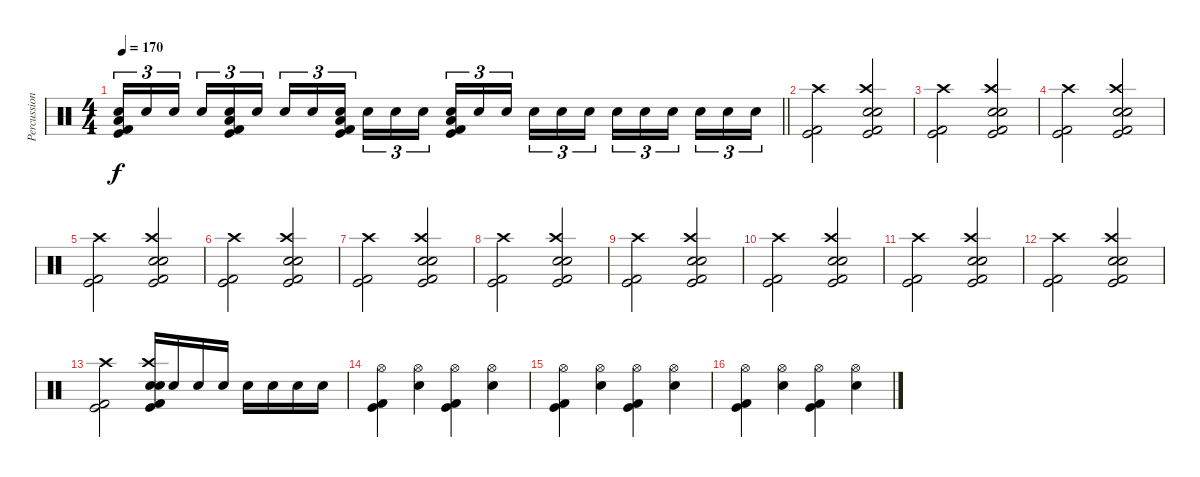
\track ("Percussion" "Percussion") {instrument percussion}
\staff {score}
\articulation defaults
\ts (4 4)
\tempo 170
\clef neutral
\barLineRight lightlight
\ks c
("Low Floor Tom (hit)" "Snare (hit) 2" "Kick (hit) 2" "Kick (hit)").16{tu (3 2) dy f} "Snare (hit) 2".16{tu (3 2)} "Snare (hit) 2".16{tu (3 2) beam splitsecondary} "Snare (hit) 2".16{tu (3 2)} ("Low Floor Tom (hit)" "Snare (hit) 2" "Kick (hit) 2" "Kick (hit)").16{tu (3 2)} "Snare (hit) 2".16{tu (3 2)} "Snare (hit) 2".16{tu (3 2)} "Snare (hit) 2".16{tu (3 2)} ("Low Floor Tom (hit)" "Snare (hit) 2" "Kick (hit) 2" "Kick (hit)").16{tu (3 2) beam splitsecondary} "Snare (hit) 2".16{tu (3 2)} "Snare (hit) 2".16{tu (3 2)} "Snare (hit) 2".16{tu (3 2)} ("Low Floor Tom (hit)" "Snare (hit) 2" "Kick (hit) 2" "Kick (hit)").16{tu (3 2)} "Snare (hit) 2".16{tu (3 2)} "Snare (hit) 2".16{tu (3 2) beam splitsecondary} "Snare (hit) 2".16{tu (3 2)} "Snare (hit) 2".16{tu (3 2)} "Snare (hit) 2".16{tu (3 2)} "Snare (hit) 2".16{tu (3 2)} "Snare (hit) 2".16{tu (3 2)} "Snare (hit) 2".16{tu (3 2) beam splitsecondary} "Snare (hit) 2".16{tu (3 2)} "Snare (hit) 2".16{tu (3 2)} "Snare (hit) 2".16{tu (3 2)} |
("Crash high (hit)" "Kick (hit) 2" "Kick (hit)").2 ("Crash high (hit)" "Kick (hit) 2" "Kick (hit)" "Electric Snare (hit)" "Electric Snare (hit)").2 |
("Crash high (hit)" "Kick (hit) 2" "Kick (hit)").2 ("Crash high (hit)" "Kick (hit) 2" "Kick (hit)" "Electric Snare (hit)" "Electric Snare (hit)").2 |
("Crash high (hit)" "Kick (hit) 2" "Kick (hit)").2 ("Crash high (hit)" "Kick (hit) 2" "Kick (hit)" "Electric Snare (hit)" "Electric Snare (hit)").2 |
("Crash high (hit)" "Kick (hit) 2" "Kick (hit)").2 ("Crash high (hit)" "Kick (hit) 2" "Kick (hit)" "Electric Snare (hit)" "Electric Snare (hit)").2 |
("Crash high (hit)" "Kick (hit) 2" "Kick (hit)").2 ("Crash high (hit)" "Kick (hit) 2" "Kick (hit)" "Electric Snare (hit)" "Electric Snare (hit)").2 |
("Crash high (hit)" "Kick (hit) 2" "Kick (hit)").2 ("Crash high (hit)" "Kick (hit) 2" "Kick (hit)" "Electric Snare (hit)" "Electric Snare (hit)").2 |
("Crash high (hit)" "Kick (hit) 2" "Kick (hit)").2 ("Crash high (hit)" "Kick (hit) 2" "Kick (hit)" "Electric Snare (hit)" "Electric Snare (hit)").2 |
("Crash high (hit)" "Kick (hit) 2" "Kick (hit)").2 ("Crash high (hit)" "Kick (hit) 2" "Kick (hit)" "Electric Snare (hit)" "Electric Snare (hit)").2 |
("Crash high (hit)" "Kick (hit) 2" "Kick (hit)").2 ("Crash high (hit)" "Kick (hit) 2" "Kick (hit)" "Electric Snare (hit)" "Electric Snare (hit)").2 |
("Crash high (hit)" "Kick (hit) 2" "Kick (hit)").2 ("Crash high (hit)" "Kick (hit) 2" "Kick (hit)" "Electric Snare (hit)" "Electric Snare (hit)").2 |
("Crash high (hit)" "Kick (hit) 2" "Kick (hit)").2 ("Crash high (hit)" "Kick (hit) 2" "Kick (hit)" "Electric Snare (hit)" "Electric Snare (hit)").2 |
("Crash high (hit)" "Kick (hit) 2" "Kick (hit)").2 ("Crash high (hit)" "Kick (hit) 2" "Kick (hit)" "Electric Snare (hit)" "Electric Snare (hit)").16 "Electric Snare (hit)".16 "Electric Snare (hit)".16 "Electric Snare (hit)".16 "Electric Snare (hit)".16 "Electric Snare (hit)".16 "Electric Snare (hit)".16 "Electric Snare (hit)".16 |
("Hi-Hat (open)" "Kick (hit) 2" "Kick (hit)").4 ("Hi-Hat (open)" "Electric Snare (hit)").4 ("Hi-Hat (open)" "Kick (hit) 2" "Kick (hit)").4 ("Hi-Hat (open)" "Electric Snare (hit)").4 |
("Hi-Hat (open)" "Kick (hit) 2" "Kick (hit)").4 ("Hi-Hat (open)" "Electric Snare (hit)").4 ("Hi-Hat (open)" "Kick (hit) 2" "Kick (hit)").4 ("Hi-Hat (open)" "Electric Snare (hit)").4 |
("Hi-Hat (open)" "Kick (hit) 2" "Kick (hit)").4 ("Hi-Hat (open)" "Electric Snare (hit)").4 ("Hi-Hat (open)" "Kick (hit) 2" "Kick (hit)").4 ("Hi-Hat (open)" "Electric Snare (hit)").4
